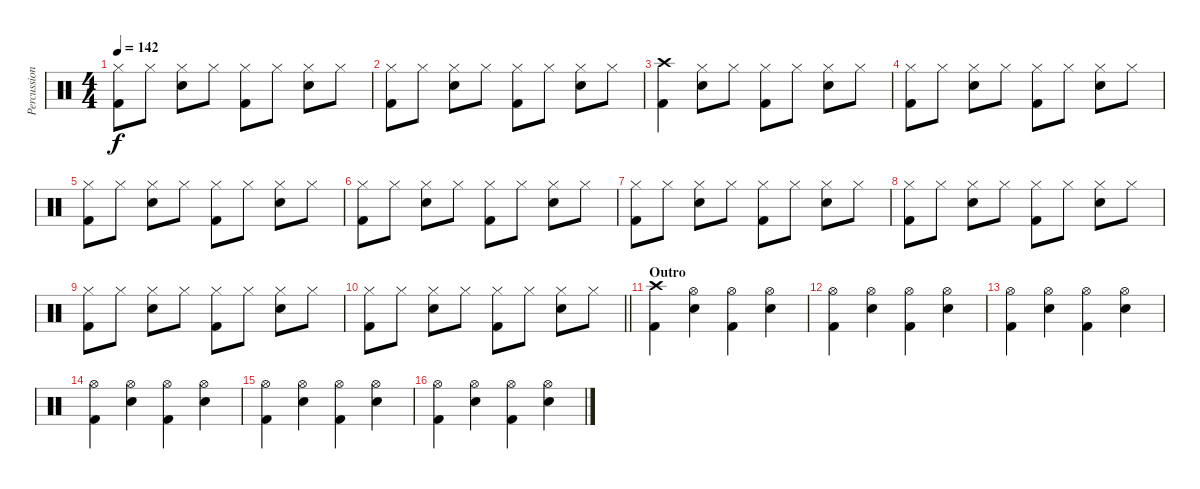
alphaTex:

\track ("Percussion" "Percussion") {instrument percussion}
\staff {score}
\articulation defaults
\ts (4 4)
\tempo 142
\clef neutral
\ks c
("Hi-Hat (closed)" "Kick (hit) 2").8{dy f} "Hi-Hat (closed)".8 ("Hi-Hat (closed)" "Snare (hit) 2").8 "Hi-Hat (closed)".8 ("Hi-Hat (closed)" "Kick (hit) 2").8 "Hi-Hat (closed)".8 ("Hi-Hat (closed)" "Snare (hit) 2").8 "Hi-Hat (closed)".8 |
("Hi-Hat (closed)" "Kick (hit) 2").8 "Hi-Hat (closed)".8 ("Hi-Hat (closed)" "Snare (hit) 2").8 "Hi-Hat (closed)".8 ("Hi-Hat (closed)" "Kick (hit) 2").8 "Hi-Hat (closed)".8 ("Hi-Hat (closed)" "Snare (hit) 2").8 "Hi-Hat (closed)".8 |
("Crash high (hit)" "Kick (hit) 2").4 ("Hi-Hat (closed)" "Snare (hit) 2").8 "Hi-Hat (closed)".8 ("Hi-Hat (closed)" "Kick (hit) 2").8 "Hi-Hat (closed)".8 ("Hi-Hat (closed)" "Snare (hit) 2").8 "Hi-Hat (closed)".8 |
("Hi-Hat (closed)" "Kick (hit) 2").8 "Hi-Hat (closed)".8 ("Hi-Hat (closed)" "Snare (hit) 2").8 "Hi-Hat (closed)".8 ("Hi-Hat (closed)" "Kick (hit) 2").8 "Hi-Hat (closed)".8 ("Hi-Hat (closed)" "Snare (hit) 2").8 "Hi-Hat (closed)".8 |
("Hi-Hat (closed)" "Kick (hit) 2").8 "Hi-Hat (closed)".8 ("Hi-Hat (closed)" "Snare (hit) 2").8 "Hi-Hat (closed)".8 ("Hi-Hat (closed)" "Kick (hit) 2").8 "Hi-Hat (closed)".8 ("Hi-Hat (closed)" "Snare (hit) 2").8 "Hi-Hat (closed)".8 |
("Hi-Hat (closed)" "Kick (hit) 2").8 "Hi-Hat (closed)".8 ("Hi-Hat (closed)" "Snare (hit) 2").8 "Hi-Hat (closed)".8 ("Hi-Hat (closed)" "Kick (hit) 2").8 "Hi-Hat (closed)".8 ("Hi-Hat (closed)" "Snare (hit) 2").8 "Hi-Hat (closed)".8 |
("Hi-Hat (closed)" "Kick (hit) 2").8 "Hi-Hat (closed)".8 ("Hi-Hat (closed)" "Snare (hit) 2").8 "Hi-Hat (closed)".8 ("Hi-Hat (closed)" "Kick (hit) 2").8 "Hi-Hat (closed)".8 ("Hi-Hat (closed)" "Snare (hit) 2").8 "Hi-Hat (closed)".8 |
("Hi-Hat (closed)" "Kick (hit) 2").8 "Hi-Hat (closed)".8 ("Hi-Hat (closed)" "Snare (hit) 2").8 "Hi-Hat (closed)".8 ("Hi-Hat (closed)" "Kick (hit) 2").8 "Hi-Hat (closed)".8 ("Hi-Hat (closed)" "Snare (hit) 2").8 "Hi-Hat (closed)".8 |
("Hi-Hat (closed)" "Kick (hit) 2").8 "Hi-Hat (closed)".8 ("Hi-Hat (closed)" "Snare (hit) 2").8 "Hi-Hat (closed)".8 ("Hi-Hat (closed)" "Kick (hit) 2").8 "Hi-Hat (closed)".8 ("Hi-Hat (closed)" "Snare (hit) 2").8 "Hi-Hat (closed)".8 |
\barLineRight lightlight
("Hi-Hat (closed)" "Kick (hit) 2").8 "Hi-Hat (closed)".8 ("Hi-Hat (closed)" "Snare (hit) 2").8 "Hi-Hat (closed)".8 ("Hi-Hat (closed)" "Kick (hit) 2").8 "Hi-Hat (closed)".8 ("Hi-Hat (closed)" "Snare (hit) 2").8 "Hi-Hat (closed)".8 |
\section ("" "Outro")
("Crash high (hit)" "Kick (hit) 2").4 ("Hi-Hat (open)" "Snare (hit) 2").4 ("Hi-Hat (open)" "Kick (hit) 2").4 ("Hi-Hat (open)" "Snare (hit) 2").4 |
("Hi-Hat (open)" "Kick (hit) 2").4 ("Hi-Hat (open)" "Snare (hit) 2").4 ("Hi-Hat (open)" "Kick (hit) 2").4 ("Hi-Hat (open)" "Snare (hit) 2").4 |
("Hi-Hat (open)" "Kick (hit) 2").4 ("Hi-Hat (open)" "Snare (hit) 2").4 ("Hi-Hat (open)" "Kick (hit) 2").4 ("Hi-Hat (open)" "Snare (hit) 2").4 |
("Hi-Hat (open)" "Kick (hit) 2").4 ("Hi-Hat (open)" "Snare (hit) 2").4 ("Hi-Hat (open)" "Kick (hit) 2").4 ("Hi-Hat (open)" "Snare (hit) 2").4 |
("Hi-Hat (open)" "Kick (hit) 2").4 ("Hi-Hat (open)" "Snare (hit) 2").4 ("Hi-Hat (open)" "Kick (hit) 2").4 ("Hi-Hat (open)" "Snare (hit) 2").4 |
("Hi-Hat (open)" "Kick (hit) 2").4 ("Hi-Hat (open)" "Snare (hit) 2").4 ("Hi-Hat (open)" "Kick (hit) 2").4 ("Hi-Hat (open)" "Snare (hit) 2").4
